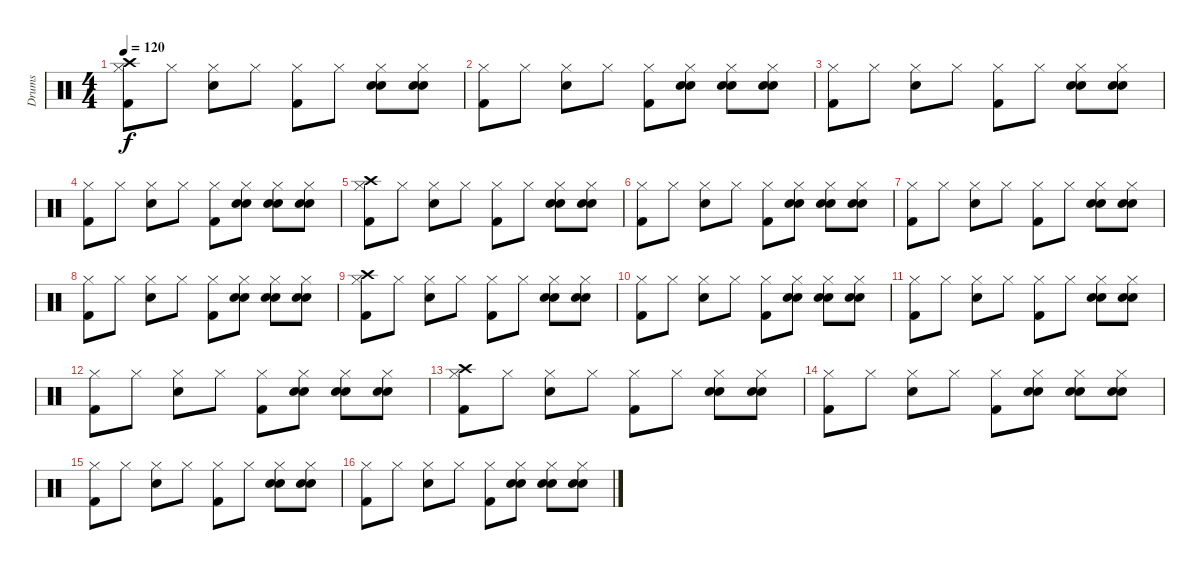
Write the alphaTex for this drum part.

\track ("Drums" "Drums") {instrument percussion}
\staff {score}
\articulation defaults
\ts (4 4)
\tempo 120
\clef neutral
\ks c
("Crash high (hit)" "Hi-Hat (closed)" "Kick (hit) 2").8{dy f} "Hi-Hat (closed)".8 ("Hi-Hat (closed)" "Electric Snare (hit)").8 "Hi-Hat (closed)".8 ("Hi-Hat (closed)" "Kick (hit) 2").8 "Hi-Hat (closed)".8 ("Hi-Hat (closed)" "Hand Clap (hit)" "Electric Snare (hit)").8 ("Hi-Hat (closed)" "Hand Clap (hit)" "Electric Snare (hit)").8 |
("Hi-Hat (closed)" "Kick (hit) 2").8 "Hi-Hat (closed)".8 ("Hi-Hat (closed)" "Electric Snare (hit)").8 "Hi-Hat (closed)".8 ("Hi-Hat (closed)" "Kick (hit) 2").8 ("Hi-Hat (closed)" "Hand Clap (hit)" "Electric Snare (hit)").8 ("Hi-Hat (closed)" "Hand Clap (hit)" "Electric Snare (hit)").8 ("Hi-Hat (closed)" "Hand Clap (hit)" "Electric Snare (hit)").8 |
("Hi-Hat (closed)" "Kick (hit) 2").8 "Hi-Hat (closed)".8 ("Hi-Hat (closed)" "Electric Snare (hit)").8 "Hi-Hat (closed)".8 ("Hi-Hat (closed)" "Kick (hit) 2").8 "Hi-Hat (closed)".8 ("Hi-Hat (closed)" "Hand Clap (hit)" "Electric Snare (hit)").8 ("Hi-Hat (closed)" "Hand Clap (hit)" "Electric Snare (hit)").8 |
("Hi-Hat (closed)" "Kick (hit) 2").8 "Hi-Hat (closed)".8 ("Hi-Hat (closed)" "Electric Snare (hit)").8 "Hi-Hat (closed)".8 ("Hi-Hat (closed)" "Kick (hit) 2").8 ("Hi-Hat (closed)" "Hand Clap (hit)" "Electric Snare (hit)").8 ("Hi-Hat (closed)" "Hand Clap (hit)" "Electric Snare (hit)").8 ("Hi-Hat (closed)" "Hand Clap (hit)" "Electric Snare (hit)").8 |
("Crash high (hit)" "Hi-Hat (closed)" "Kick (hit) 2").8 "Hi-Hat (closed)".8 ("Hi-Hat (closed)" "Electric Snare (hit)").8 "Hi-Hat (closed)".8 ("Hi-Hat (closed)" "Kick (hit) 2").8 "Hi-Hat (closed)".8 ("Hi-Hat (closed)" "Hand Clap (hit)" "Electric Snare (hit)").8 ("Hi-Hat (closed)" "Hand Clap (hit)" "Electric Snare (hit)").8 |
("Hi-Hat (closed)" "Kick (hit) 2").8 "Hi-Hat (closed)".8 ("Hi-Hat (closed)" "Electric Snare (hit)").8 "Hi-Hat (closed)".8 ("Hi-Hat (closed)" "Kick (hit) 2").8 ("Hi-Hat (closed)" "Hand Clap (hit)" "Electric Snare (hit)").8 ("Hi-Hat (closed)" "Hand Clap (hit)" "Electric Snare (hit)").8 ("Hi-Hat (closed)" "Hand Clap (hit)" "Electric Snare (hit)").8 |
("Hi-Hat (closed)" "Kick (hit) 2").8 "Hi-Hat (closed)".8 ("Hi-Hat (closed)" "Electric Snare (hit)").8 "Hi-Hat (closed)".8 ("Hi-Hat (closed)" "Kick (hit) 2").8 "Hi-Hat (closed)".8 ("Hi-Hat (closed)" "Hand Clap (hit)" "Electric Snare (hit)").8 ("Hi-Hat (closed)" "Hand Clap (hit)" "Electric Snare (hit)").8 |
("Hi-Hat (closed)" "Kick (hit) 2").8 "Hi-Hat (closed)".8 ("Hi-Hat (closed)" "Electric Snare (hit)").8 "Hi-Hat (closed)".8 ("Hi-Hat (closed)" "Kick (hit) 2").8 ("Hi-Hat (closed)" "Hand Clap (hit)" "Electric Snare (hit)").8 ("Hi-Hat (closed)" "Hand Clap (hit)" "Electric Snare (hit)").8 ("Hi-Hat (closed)" "Hand Clap (hit)" "Electric Snare (hit)").8 |
("Crash high (hit)" "Hi-Hat (closed)" "Kick (hit) 2").8 "Hi-Hat (closed)".8 ("Hi-Hat (closed)" "Electric Snare (hit)").8 "Hi-Hat (closed)".8 ("Hi-Hat (closed)" "Kick (hit) 2").8 "Hi-Hat (closed)".8 ("Hi-Hat (closed)" "Hand Clap (hit)" "Electric Snare (hit)").8 ("Hi-Hat (closed)" "Hand Clap (hit)" "Electric Snare (hit)").8 |
("Hi-Hat (closed)" "Kick (hit) 2").8 "Hi-Hat (closed)".8 ("Hi-Hat (closed)" "Electric Snare (hit)").8 "Hi-Hat (closed)".8 ("Hi-Hat (closed)" "Kick (hit) 2").8 ("Hi-Hat (closed)" "Hand Clap (hit)" "Electric Snare (hit)").8 ("Hi-Hat (closed)" "Hand Clap (hit)" "Electric Snare (hit)").8 ("Hi-Hat (closed)" "Hand Clap (hit)" "Electric Snare (hit)").8 |
("Hi-Hat (closed)" "Kick (hit) 2").8 "Hi-Hat (closed)".8 ("Hi-Hat (closed)" "Electric Snare (hit)").8 "Hi-Hat (closed)".8 ("Hi-Hat (closed)" "Kick (hit) 2").8 "Hi-Hat (closed)".8 ("Hi-Hat (closed)" "Hand Clap (hit)" "Electric Snare (hit)").8 ("Hi-Hat (closed)" "Hand Clap (hit)" "Electric Snare (hit)").8 |
("Hi-Hat (closed)" "Kick (hit) 2").8 "Hi-Hat (closed)".8 ("Hi-Hat (closed)" "Electric Snare (hit)").8 "Hi-Hat (closed)".8 ("Hi-Hat (closed)" "Kick (hit) 2").8 ("Hi-Hat (closed)" "Hand Clap (hit)" "Electric Snare (hit)").8 ("Hi-Hat (closed)" "Hand Clap (hit)" "Electric Snare (hit)").8 ("Hi-Hat (closed)" "Hand Clap (hit)" "Electric Snare (hit)").8 |
("Crash high (hit)" "Hi-Hat (closed)" "Kick (hit) 2").8 "Hi-Hat (closed)".8 ("Hi-Hat (closed)" "Electric Snare (hit)").8 "Hi-Hat (closed)".8 ("Hi-Hat (closed)" "Kick (hit) 2").8 "Hi-Hat (closed)".8 ("Hi-Hat (closed)" "Hand Clap (hit)" "Electric Snare (hit)").8 ("Hi-Hat (closed)" "Hand Clap (hit)" "Electric Snare (hit)").8 |
("Hi-Hat (closed)" "Kick (hit) 2").8 "Hi-Hat (closed)".8 ("Hi-Hat (closed)" "Electric Snare (hit)").8 "Hi-Hat (closed)".8 ("Hi-Hat (closed)" "Kick (hit) 2").8 ("Hi-Hat (closed)" "Hand Clap (hit)" "Electric Snare (hit)").8 ("Hi-Hat (closed)" "Hand Clap (hit)" "Electric Snare (hit)").8 ("Hi-Hat (closed)" "Hand Clap (hit)" "Electric Snare (hit)").8 |
("Hi-Hat (closed)" "Kick (hit) 2").8 "Hi-Hat (closed)".8 ("Hi-Hat (closed)" "Electric Snare (hit)").8 "Hi-Hat (closed)".8 ("Hi-Hat (closed)" "Kick (hit) 2").8 "Hi-Hat (closed)".8 ("Hi-Hat (closed)" "Hand Clap (hit)" "Electric Snare (hit)").8 ("Hi-Hat (closed)" "Hand Clap (hit)" "Electric Snare (hit)").8 |
("Hi-Hat (closed)" "Kick (hit) 2").8 "Hi-Hat (closed)".8 ("Hi-Hat (closed)" "Electric Snare (hit)").8 "Hi-Hat (closed)".8 ("Hi-Hat (closed)" "Kick (hit) 2").8 ("Hi-Hat (closed)" "Hand Clap (hit)" "Electric Snare (hit)").8 ("Hi-Hat (closed)" "Hand Clap (hit)" "Electric Snare (hit)").8 ("Hi-Hat (closed)" "Hand Clap (hit)" "Electric Snare (hit)").8
